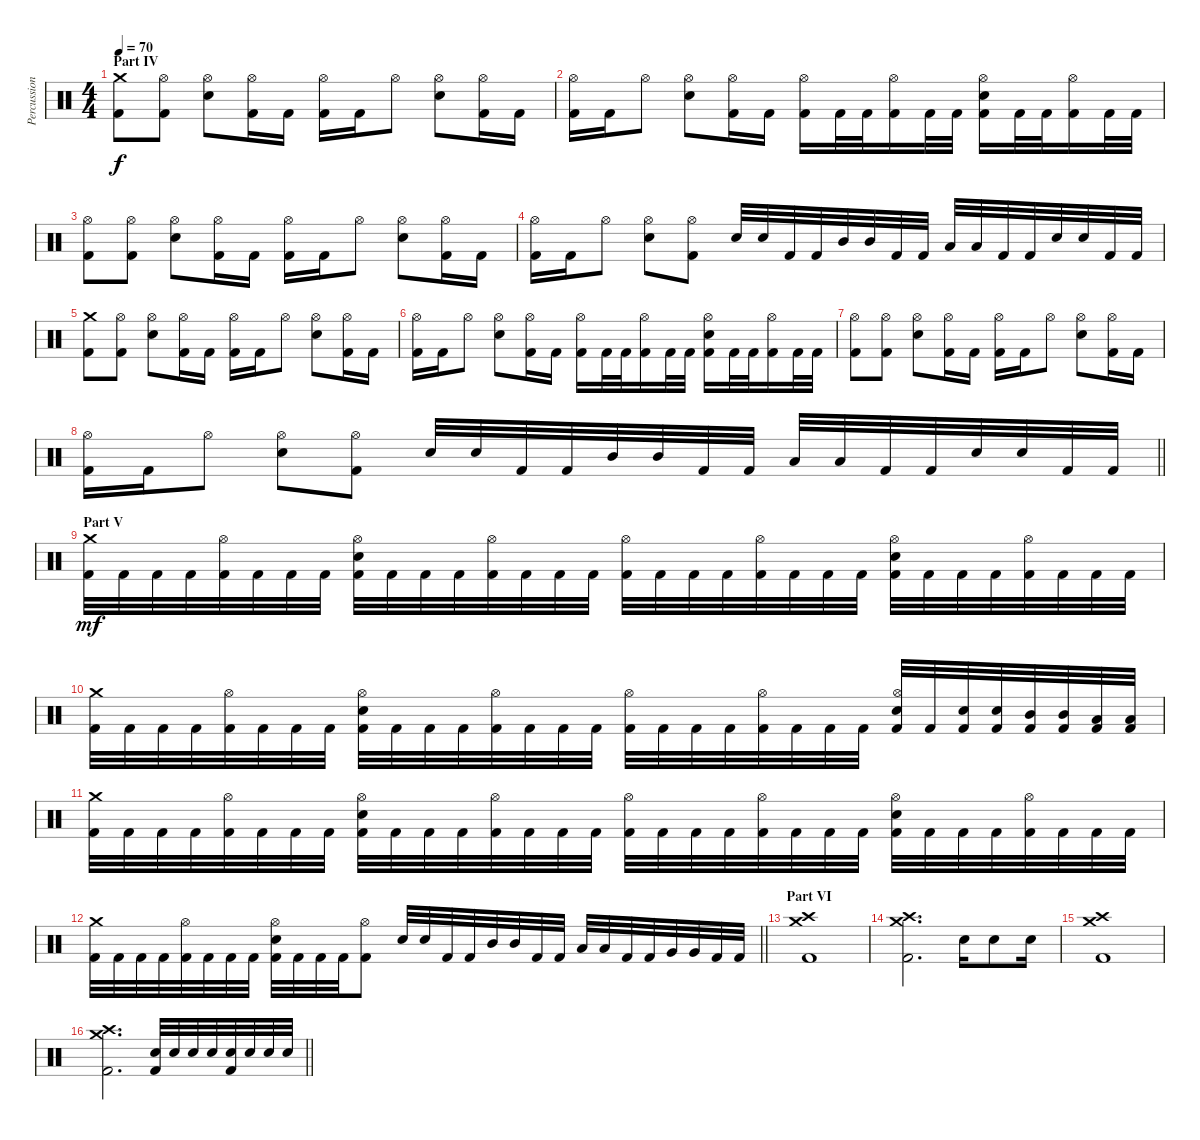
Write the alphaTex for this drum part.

\track ("Percussion" "Percussion") {instrument percussion}
\staff {score}
\articulation defaults
\ts (4 4)
\section ("" "Part IV")
\tempo 70
\clef neutral
\ks c
("Crash medium (hit)" "Kick (hit) 2").8{dy f} ("Hi-Hat (open)" "Kick (hit) 2").8 ("Hi-Hat (open)" "Snare (hit) 2").8 ("Hi-Hat (open)" "Kick (hit) 2").16 "Kick (hit) 2".16 ("Hi-Hat (open)" "Kick (hit) 2").16 "Kick (hit) 2".16 "Hi-Hat (open)".8 ("Hi-Hat (open)" "Snare (hit) 2").8 ("Hi-Hat (open)" "Kick (hit) 2").16 "Kick (hit) 2".16 |
("Hi-Hat (open)" "Kick (hit) 2").16 "Kick (hit) 2".16 "Hi-Hat (open)".8 ("Hi-Hat (open)" "Snare (hit) 2").8 ("Hi-Hat (open)" "Kick (hit) 2").16 "Kick (hit) 2".16 ("Hi-Hat (open)" "Kick (hit) 2").16 "Kick (hit) 2".32 "Kick (hit) 2".32 ("Hi-Hat (open)" "Kick (hit) 2").16 "Kick (hit) 2".32 "Kick (hit) 2".32 ("Hi-Hat (open)" "Snare (hit) 2" "Kick (hit) 2").16 "Kick (hit) 2".32 "Kick (hit) 2".32 ("Hi-Hat (open)" "Kick (hit) 2").16 "Kick (hit) 2".32 "Kick (hit) 2".32 |
("Hi-Hat (open)" "Kick (hit) 2").8 ("Hi-Hat (open)" "Kick (hit) 2").8 ("Hi-Hat (open)" "Snare (hit) 2").8 ("Hi-Hat (open)" "Kick (hit) 2").16 "Kick (hit) 2".16 ("Hi-Hat (open)" "Kick (hit) 2").16 "Kick (hit) 2".16 "Hi-Hat (open)".8 ("Hi-Hat (open)" "Snare (hit) 2").8 ("Hi-Hat (open)" "Kick (hit) 2").16 "Kick (hit) 2".16 |
("Hi-Hat (open)" "Kick (hit) 2").16 "Kick (hit) 2".16 "Hi-Hat (open)".8 ("Hi-Hat (open)" "Snare (hit) 2").8 ("Hi-Hat (open)" "Kick (hit) 2").8 "Snare (hit) 2".32 "Snare (hit) 2".32 "Kick (hit) 2".32 "Kick (hit) 2".32 "Mid Tom (hit)".32 "Mid Tom (hit)".32 "Kick (hit) 2".32 "Kick (hit) 2".32 "Low Tom (hit)".32 "Low Tom (hit)".32 "Kick (hit) 2".32 "Kick (hit) 2".32 "Snare (hit) 2".32 "Snare (hit) 2".32 "Kick (hit) 2".32 "Kick (hit) 2".32 |
("Crash medium (hit)" "Kick (hit) 2").8 ("Hi-Hat (open)" "Kick (hit) 2").8 ("Hi-Hat (open)" "Snare (hit) 2").8 ("Hi-Hat (open)" "Kick (hit) 2").16 "Kick (hit) 2".16 ("Hi-Hat (open)" "Kick (hit) 2").16 "Kick (hit) 2".16 "Hi-Hat (open)".8 ("Hi-Hat (open)" "Snare (hit) 2").8 ("Hi-Hat (open)" "Kick (hit) 2").16 "Kick (hit) 2".16 |
("Hi-Hat (open)" "Kick (hit) 2").16 "Kick (hit) 2".16 "Hi-Hat (open)".8 ("Hi-Hat (open)" "Snare (hit) 2").8 ("Hi-Hat (open)" "Kick (hit) 2").16 "Kick (hit) 2".16 ("Hi-Hat (open)" "Kick (hit) 2").16 "Kick (hit) 2".32 "Kick (hit) 2".32 ("Hi-Hat (open)" "Kick (hit) 2").16 "Kick (hit) 2".32 "Kick (hit) 2".32 ("Hi-Hat (open)" "Snare (hit) 2" "Kick (hit) 2").16 "Kick (hit) 2".32 "Kick (hit) 2".32 ("Hi-Hat (open)" "Kick (hit) 2").16 "Kick (hit) 2".32 "Kick (hit) 2".32 |
("Hi-Hat (open)" "Kick (hit) 2").8 ("Hi-Hat (open)" "Kick (hit) 2").8 ("Hi-Hat (open)" "Snare (hit) 2").8 ("Hi-Hat (open)" "Kick (hit) 2").16 "Kick (hit) 2".16 ("Hi-Hat (open)" "Kick (hit) 2").16 "Kick (hit) 2".16 "Hi-Hat (open)".8 ("Hi-Hat (open)" "Snare (hit) 2").8 ("Hi-Hat (open)" "Kick (hit) 2").16 "Kick (hit) 2".16 |
\barLineRight lightlight
("Hi-Hat (open)" "Kick (hit) 2").16 "Kick (hit) 2".16 "Hi-Hat (open)".8 ("Hi-Hat (open)" "Snare (hit) 2").8 ("Hi-Hat (open)" "Kick (hit) 2").8 "Snare (hit) 2".32 "Snare (hit) 2".32 "Kick (hit) 2".32 "Kick (hit) 2".32 "Mid Tom (hit)".32 "Mid Tom (hit)".32 "Kick (hit) 2".32 "Kick (hit) 2".32 "Low Tom (hit)".32 "Low Tom (hit)".32 "Kick (hit) 2".32 "Kick (hit) 2".32 "Snare (hit) 2".32 "Snare (hit) 2".32 "Kick (hit) 2".32 "Kick (hit) 2".32 |
\section ("" "Part V")
("Crash medium (hit)" "Kick (hit) 2").32{dy mf} "Kick (hit) 2".32 "Kick (hit) 2".32 "Kick (hit) 2".32 ("Hi-Hat (open)" "Kick (hit) 2").32 "Kick (hit) 2".32 "Kick (hit) 2".32 "Kick (hit) 2".32 ("Hi-Hat (open)" "Snare (hit) 2" "Kick (hit) 2").32 "Kick (hit) 2".32 "Kick (hit) 2".32 "Kick (hit) 2".32 ("Hi-Hat (open)" "Kick (hit) 2").32 "Kick (hit) 2".32 "Kick (hit) 2".32 "Kick (hit) 2".32 ("Hi-Hat (open)" "Kick (hit) 2").32 "Kick (hit) 2".32 "Kick (hit) 2".32 "Kick (hit) 2".32 ("Hi-Hat (open)" "Kick (hit) 2").32 "Kick (hit) 2".32 "Kick (hit) 2".32 "Kick (hit) 2".32 ("Hi-Hat (open)" "Snare (hit) 2" "Kick (hit) 2").32 "Kick (hit) 2".32 "Kick (hit) 2".32 "Kick (hit) 2".32 ("Hi-Hat (open)" "Kick (hit) 2").32 "Kick (hit) 2".32 "Kick (hit) 2".32 "Kick (hit) 2".32 |
("Crash medium (hit)" "Kick (hit) 2").32 "Kick (hit) 2".32 "Kick (hit) 2".32 "Kick (hit) 2".32 ("Hi-Hat (open)" "Kick (hit) 2").32 "Kick (hit) 2".32 "Kick (hit) 2".32 "Kick (hit) 2".32 ("Hi-Hat (open)" "Snare (hit) 2" "Kick (hit) 2").32 "Kick (hit) 2".32 "Kick (hit) 2".32 "Kick (hit) 2".32 ("Hi-Hat (open)" "Kick (hit) 2").32 "Kick (hit) 2".32 "Kick (hit) 2".32 "Kick (hit) 2".32 ("Hi-Hat (open)" "Kick (hit) 2").32 "Kick (hit) 2".32 "Kick (hit) 2".32 "Kick (hit) 2".32 ("Hi-Hat (open)" "Kick (hit) 2").32 "Kick (hit) 2".32 "Kick (hit) 2".32 "Kick (hit) 2".32 ("Hi-Hat (open)" "Snare (hit) 2" "Kick (hit) 2").32 "Kick (hit) 2".32 ("Snare (hit) 2" "Kick (hit) 2").32 ("Snare (hit) 2" "Kick (hit) 2").32 ("Mid Tom (hit)" "Kick (hit) 2").32 ("Mid Tom (hit)" "Kick (hit) 2").32 ("Low Tom (hit)" "Kick (hit) 2").32 ("Low Tom (hit)" "Kick (hit) 2").32 |
("Crash medium (hit)" "Kick (hit) 2").32 "Kick (hit) 2".32 "Kick (hit) 2".32 "Kick (hit) 2".32 ("Hi-Hat (open)" "Kick (hit) 2").32 "Kick (hit) 2".32 "Kick (hit) 2".32 "Kick (hit) 2".32 ("Hi-Hat (open)" "Snare (hit) 2" "Kick (hit) 2").32 "Kick (hit) 2".32 "Kick (hit) 2".32 "Kick (hit) 2".32 ("Hi-Hat (open)" "Kick (hit) 2").32 "Kick (hit) 2".32 "Kick (hit) 2".32 "Kick (hit) 2".32 ("Hi-Hat (open)" "Kick (hit) 2").32 "Kick (hit) 2".32 "Kick (hit) 2".32 "Kick (hit) 2".32 ("Hi-Hat (open)" "Kick (hit) 2").32 "Kick (hit) 2".32 "Kick (hit) 2".32 "Kick (hit) 2".32 ("Hi-Hat (open)" "Snare (hit) 2" "Kick (hit) 2").32 "Kick (hit) 2".32 "Kick (hit) 2".32 "Kick (hit) 2".32 ("Hi-Hat (open)" "Kick (hit) 2").32 "Kick (hit) 2".32 "Kick (hit) 2".32 "Kick (hit) 2".32 |
\barLineRight lightlight
("Crash medium (hit)" "Kick (hit) 2").32 "Kick (hit) 2".32 "Kick (hit) 2".32 "Kick (hit) 2".32 ("Hi-Hat (open)" "Kick (hit) 2").32 "Kick (hit) 2".32 "Kick (hit) 2".32 "Kick (hit) 2".32 ("Hi-Hat (open)" "Snare (hit) 2" "Kick (hit) 2").32 "Kick (hit) 2".32 "Kick (hit) 2".32 "Kick (hit) 2".32 ("Hi-Hat (open)" "Kick (hit) 2").8 "Snare (hit) 2".32 "Snare (hit) 2".32 "Kick (hit) 2".32 "Kick (hit) 2".32 "Mid Tom (hit)".32 "Mid Tom (hit)".32 "Kick (hit) 2".32 "Kick (hit) 2".32 "Low Tom (hit)".32 "Low Tom (hit)".32 "Kick (hit) 2".32 "Kick (hit) 2".32 "Very Low Tom (hit)".32 "Very Low Tom (hit)".32 "Kick (hit) 2".32 "Kick (hit) 2".32 |
\section ("" "Part VI")
("Crash high (hit)" "Crash medium (hit)" "Kick (hit) 2").1 |
("Crash high (hit)" "Crash medium (hit)" "Kick (hit) 2").2{d} "Snare (hit) 2".16 "Snare (hit) 2".8 "Snare (hit) 2".16 |
("Crash high (hit)" "Crash medium (hit)" "Kick (hit) 2").1 |
\barLineRight lightlight
("Crash high (hit)" "Crash medium (hit)" "Kick (hit) 2").2{d} ("Snare (hit) 2" "Kick (hit) 2").32 "Snare (hit) 2".32 "Snare (hit) 2".32 "Snare (hit) 2".32 ("Snare (hit) 2" "Kick (hit) 2").32 "Snare (hit) 2".32 "Snare (hit) 2".32 "Snare (hit) 2".32
